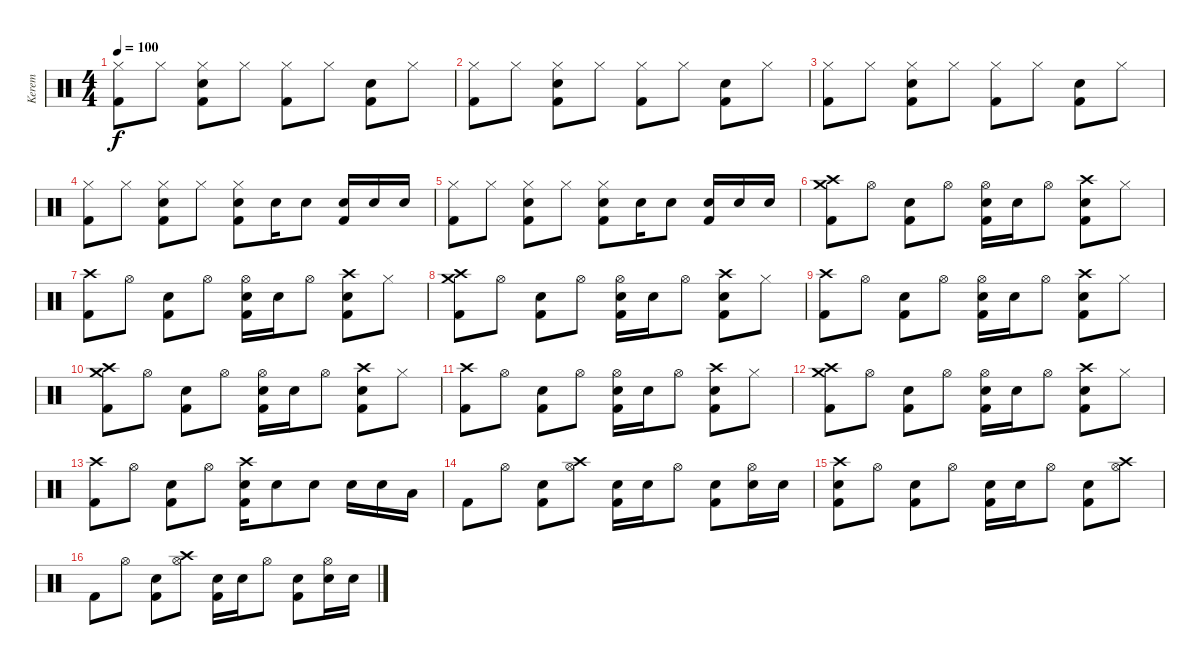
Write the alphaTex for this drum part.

\track ("Kerem" "Kerem") {instrument percussion}
\staff {score}
\articulation defaults
\ts (4 4)
\tempo 100
\clef neutral
\ks c
("Hi-Hat (closed)" "Kick (hit) 2").8{dy f} "Hi-Hat (closed)".8 ("Hi-Hat (closed)" "Electric Snare (hit)" "Kick (hit) 2").8 "Hi-Hat (closed)".8 ("Hi-Hat (closed)" "Kick (hit) 2").8 "Hi-Hat (closed)".8 ("Electric Snare (hit)" "Kick (hit) 2").8 "Hi-Hat (closed)".8 |
("Hi-Hat (closed)" "Kick (hit) 2").8 "Hi-Hat (closed)".8 ("Hi-Hat (closed)" "Electric Snare (hit)" "Kick (hit) 2").8 "Hi-Hat (closed)".8 ("Hi-Hat (closed)" "Kick (hit) 2").8 "Hi-Hat (closed)".8 ("Electric Snare (hit)" "Kick (hit) 2").8 "Hi-Hat (closed)".8 |
("Hi-Hat (closed)" "Kick (hit) 2").8 "Hi-Hat (closed)".8 ("Hi-Hat (closed)" "Electric Snare (hit)" "Kick (hit) 2").8 "Hi-Hat (closed)".8 ("Hi-Hat (closed)" "Kick (hit) 2").8 "Hi-Hat (closed)".8 ("Electric Snare (hit)" "Kick (hit) 2").8 "Hi-Hat (closed)".8 |
("Hi-Hat (closed)" "Kick (hit) 2").8 "Hi-Hat (closed)".8 ("Hi-Hat (closed)" "Electric Snare (hit)" "Kick (hit) 2").8 "Hi-Hat (closed)".8 ("Hi-Hat (closed)" "Electric Snare (hit)" "Kick (hit) 2").8 "Electric Snare (hit)".16 "Electric Snare (hit)".8 ("Electric Snare (hit)" "Kick (hit) 2").16 "Electric Snare (hit)".16 "Electric Snare (hit)".16 |
("Hi-Hat (closed)" "Kick (hit) 2").8 "Hi-Hat (closed)".8 ("Hi-Hat (closed)" "Electric Snare (hit)" "Kick (hit) 2").8 "Hi-Hat (closed)".8 ("Hi-Hat (closed)" "Electric Snare (hit)" "Kick (hit) 2").8 "Electric Snare (hit)".16 "Electric Snare (hit)".8 ("Electric Snare (hit)" "Kick (hit) 2").16 "Electric Snare (hit)".16 "Electric Snare (hit)".16 |
("Crash high (hit)" "Crash medium (hit)" "Kick (hit) 2").8 "Hi-Hat (open)".8 ("Electric Snare (hit)" "Kick (hit) 2").8 "Hi-Hat (open)".8 ("Electric Snare (hit)" "Hi-Hat (open)" "Kick (hit) 2").16 "Electric Snare (hit)".16 "Hi-Hat (open)".8 ("Crash high (hit)" "Electric Snare (hit)" "Kick (hit) 2").8 "Hi-Hat (closed)".8 |
("Crash high (hit)" "Kick (hit) 2").8 "Hi-Hat (open)".8 ("Electric Snare (hit)" "Kick (hit) 2").8 "Hi-Hat (open)".8 ("Electric Snare (hit)" "Hi-Hat (open)" "Kick (hit) 2").16 "Electric Snare (hit)".16 "Hi-Hat (open)".8 ("Crash high (hit)" "Electric Snare (hit)" "Kick (hit) 2").8 "Hi-Hat (closed)".8 |
("Crash high (hit)" "Crash medium (hit)" "Kick (hit) 2").8 "Hi-Hat (open)".8 ("Electric Snare (hit)" "Kick (hit) 2").8 "Hi-Hat (open)".8 ("Electric Snare (hit)" "Hi-Hat (open)" "Kick (hit) 2").16 "Electric Snare (hit)".16 "Hi-Hat (open)".8 ("Crash high (hit)" "Electric Snare (hit)" "Kick (hit) 2").8 "Hi-Hat (closed)".8 |
("Crash high (hit)" "Kick (hit) 2").8 "Hi-Hat (open)".8 ("Electric Snare (hit)" "Kick (hit) 2").8 "Hi-Hat (open)".8 ("Electric Snare (hit)" "Hi-Hat (open)" "Kick (hit) 2").16 "Electric Snare (hit)".16 "Hi-Hat (open)".8 ("Crash high (hit)" "Electric Snare (hit)" "Kick (hit) 2").8 "Hi-Hat (closed)".8 |
("Crash high (hit)" "Crash medium (hit)" "Kick (hit) 2").8 "Hi-Hat (open)".8 ("Electric Snare (hit)" "Kick (hit) 2").8 "Hi-Hat (open)".8 ("Electric Snare (hit)" "Hi-Hat (open)" "Kick (hit) 2").16 "Electric Snare (hit)".16 "Hi-Hat (open)".8 ("Crash high (hit)" "Electric Snare (hit)" "Kick (hit) 2").8 "Hi-Hat (closed)".8 |
("Crash high (hit)" "Kick (hit) 2").8 "Hi-Hat (open)".8 ("Electric Snare (hit)" "Kick (hit) 2").8 "Hi-Hat (open)".8 ("Electric Snare (hit)" "Hi-Hat (open)" "Kick (hit) 2").16 "Electric Snare (hit)".16 "Hi-Hat (open)".8 ("Crash high (hit)" "Electric Snare (hit)" "Kick (hit) 2").8 "Hi-Hat (closed)".8 |
("Crash high (hit)" "Crash medium (hit)" "Kick (hit) 2").8 "Hi-Hat (open)".8 ("Electric Snare (hit)" "Kick (hit) 2").8 "Hi-Hat (open)".8 ("Electric Snare (hit)" "Hi-Hat (open)" "Kick (hit) 2").16 "Electric Snare (hit)".16 "Hi-Hat (open)".8 ("Crash high (hit)" "Electric Snare (hit)" "Kick (hit) 2").8 "Hi-Hat (closed)".8 |
("Crash high (hit)" "Kick (hit) 2").8 "Hi-Hat (open)".8 ("Electric Snare (hit)" "Kick (hit) 2").8 "Hi-Hat (open)".8 ("Crash high (hit)" "Electric Snare (hit)" "Kick (hit) 2").16 "Electric Snare (hit)".8 "Electric Snare (hit)".8 "Electric Snare (hit)".16 "Electric Snare (hit)".16 "Low Tom (hit)".16 |
"Kick (hit) 2".8 "Hi-Hat (open)".8 ("Electric Snare (hit)" "Kick (hit) 2").8 ("Crash high (hit)" "Hi-Hat (open)").8 ("Electric Snare (hit)" "Kick (hit) 2").16 "Electric Snare (hit)".16 "Hi-Hat (open)".8 ("Electric Snare (hit)" "Kick (hit) 2").8 ("Electric Snare (hit)" "Hi-Hat (open)").16 "Electric Snare (hit)".16 |
("Crash high (hit)" "Electric Snare (hit)" "Kick (hit) 2").8 "Hi-Hat (open)".8 ("Electric Snare (hit)" "Kick (hit) 2").8 "Hi-Hat (open)".8 ("Electric Snare (hit)" "Kick (hit) 2").16 "Electric Snare (hit)".16 "Hi-Hat (open)".8 ("Electric Snare (hit)" "Kick (hit) 2").8 ("Crash high (hit)" "Hi-Hat (open)").8 |
"Kick (hit) 2".8 "Hi-Hat (open)".8 ("Electric Snare (hit)" "Kick (hit) 2").8 ("Crash high (hit)" "Hi-Hat (open)").8 ("Electric Snare (hit)" "Kick (hit) 2").16 "Electric Snare (hit)".16 "Hi-Hat (open)".8 ("Electric Snare (hit)" "Kick (hit) 2").8 ("Electric Snare (hit)" "Hi-Hat (open)").16 "Electric Snare (hit)".16
